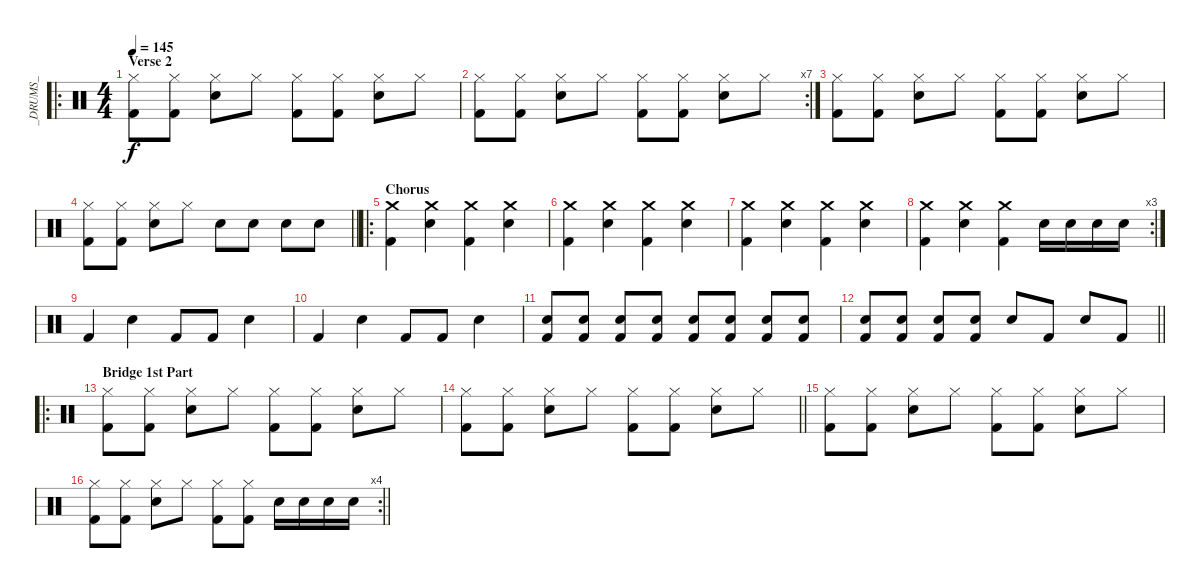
\track ("_DRUMS_" "_DRUMS_") {instrument percussion}
\staff {score}
\articulation defaults
\ro
\ts (4 4)
\section ("" "Verse 2")
\tempo 145
\clef neutral
\ks c
("Hi-Hat (closed)" "Kick (hit) 2").8{dy f} ("Hi-Hat (closed)" "Kick (hit) 2").8 ("Hi-Hat (closed)" "Electric Snare (hit)").8 "Hi-Hat (closed)".8 ("Hi-Hat (closed)" "Kick (hit) 2").8 ("Hi-Hat (closed)" "Kick (hit) 2").8 ("Hi-Hat (closed)" "Electric Snare (hit)").8 "Hi-Hat (closed)".8 |
\rc 7
("Hi-Hat (closed)" "Kick (hit) 2").8 ("Hi-Hat (closed)" "Kick (hit) 2").8 ("Hi-Hat (closed)" "Electric Snare (hit)").8 "Hi-Hat (closed)".8 ("Hi-Hat (closed)" "Kick (hit) 2").8 ("Hi-Hat (closed)" "Kick (hit) 2").8 ("Hi-Hat (closed)" "Electric Snare (hit)").8 "Hi-Hat (closed)".8 |
("Hi-Hat (closed)" "Kick (hit) 2").8 ("Hi-Hat (closed)" "Kick (hit) 2").8 ("Hi-Hat (closed)" "Electric Snare (hit)").8 "Hi-Hat (closed)".8 ("Hi-Hat (closed)" "Kick (hit) 2").8 ("Hi-Hat (closed)" "Kick (hit) 2").8 ("Hi-Hat (closed)" "Electric Snare (hit)").8 "Hi-Hat (closed)".8 |
\barLineRight lightlight
("Hi-Hat (closed)" "Kick (hit) 2").8 ("Hi-Hat (closed)" "Kick (hit) 2").8 ("Hi-Hat (closed)" "Electric Snare (hit)").8 "Hi-Hat (closed)".8 "Electric Snare (hit)".8 "Electric Snare (hit)".8 "Electric Snare (hit)".8 "Electric Snare (hit)".8 |
\ro
\section ("" "Chorus")
("Crash medium (hit)" "Kick (hit) 2").4 ("Crash medium (hit)" "Electric Snare (hit)").4 ("Crash medium (hit)" "Kick (hit) 2").4 ("Crash medium (hit)" "Electric Snare (hit)").4 |
("Crash medium (hit)" "Kick (hit) 2").4 ("Crash medium (hit)" "Electric Snare (hit)").4 ("Crash medium (hit)" "Kick (hit) 2").4 ("Crash medium (hit)" "Electric Snare (hit)").4 |
("Crash medium (hit)" "Kick (hit) 2").4 ("Crash medium (hit)" "Electric Snare (hit)").4 ("Crash medium (hit)" "Kick (hit) 2").4 ("Crash medium (hit)" "Electric Snare (hit)").4 |
\rc 3
("Crash medium (hit)" "Kick (hit) 2").4 ("Crash medium (hit)" "Electric Snare (hit)").4 ("Crash medium (hit)" "Kick (hit) 2").4 "Electric Snare (hit)".16 "Electric Snare (hit)".16 "Electric Snare (hit)".16 "Electric Snare (hit)".16 |
"Kick (hit) 2".4 "Electric Snare (hit)".4 "Kick (hit) 2".8 "Kick (hit) 2".8 "Electric Snare (hit)".4 |
"Kick (hit) 2".4 "Electric Snare (hit)".4 "Kick (hit) 2".8 "Kick (hit) 2".8 "Electric Snare (hit)".4 |
("Electric Snare (hit)" "Kick (hit) 2").8 ("Electric Snare (hit)" "Kick (hit) 2").8 ("Electric Snare (hit)" "Kick (hit) 2").8 ("Electric Snare (hit)" "Kick (hit) 2").8 ("Electric Snare (hit)" "Kick (hit) 2").8 ("Electric Snare (hit)" "Kick (hit) 2").8 ("Electric Snare (hit)" "Kick (hit) 2").8 ("Electric Snare (hit)" "Kick (hit) 2").8 |
\barLineRight lightlight
("Electric Snare (hit)" "Kick (hit) 2").8 ("Electric Snare (hit)" "Kick (hit) 2").8 ("Electric Snare (hit)" "Kick (hit) 2").8 ("Electric Snare (hit)" "Kick (hit) 2").8 "Electric Snare (hit)".8 "Kick (hit) 2".8 "Electric Snare (hit)".8 "Kick (hit) 2".8 |
\ro
\section ("" "Bridge 1st Part")
("Hi-Hat (closed)" "Kick (hit) 2").8 ("Hi-Hat (closed)" "Kick (hit) 2").8 ("Hi-Hat (closed)" "Electric Snare (hit)").8 "Hi-Hat (closed)".8 ("Hi-Hat (closed)" "Kick (hit) 2").8 ("Hi-Hat (closed)" "Kick (hit) 2").8 ("Hi-Hat (closed)" "Electric Snare (hit)").8 "Hi-Hat (closed)".8 |
\barLineRight lightlight
("Hi-Hat (closed)" "Kick (hit) 2").8 ("Hi-Hat (closed)" "Kick (hit) 2").8 ("Hi-Hat (closed)" "Electric Snare (hit)").8 "Hi-Hat (closed)".8 ("Hi-Hat (closed)" "Kick (hit) 2").8 ("Hi-Hat (closed)" "Kick (hit) 2").8 ("Hi-Hat (closed)" "Electric Snare (hit)").8 "Hi-Hat (closed)".8 |
("Hi-Hat (closed)" "Kick (hit) 2").8 ("Hi-Hat (closed)" "Kick (hit) 2").8 ("Hi-Hat (closed)" "Electric Snare (hit)").8 "Hi-Hat (closed)".8 ("Hi-Hat (closed)" "Kick (hit) 2").8 ("Hi-Hat (closed)" "Kick (hit) 2").8 ("Hi-Hat (closed)" "Electric Snare (hit)").8 "Hi-Hat (closed)".8 |
\rc 4
\barLineRight lightlight
("Hi-Hat (closed)" "Kick (hit) 2").8 ("Hi-Hat (closed)" "Kick (hit) 2").8 ("Hi-Hat (closed)" "Electric Snare (hit)").8 "Hi-Hat (closed)".8 ("Hi-Hat (closed)" "Kick (hit) 2").8 ("Hi-Hat (closed)" "Kick (hit) 2").8 "Electric Snare (hit)".16 "Electric Snare (hit)".16 "Electric Snare (hit)".16 "Electric Snare (hit)".16
